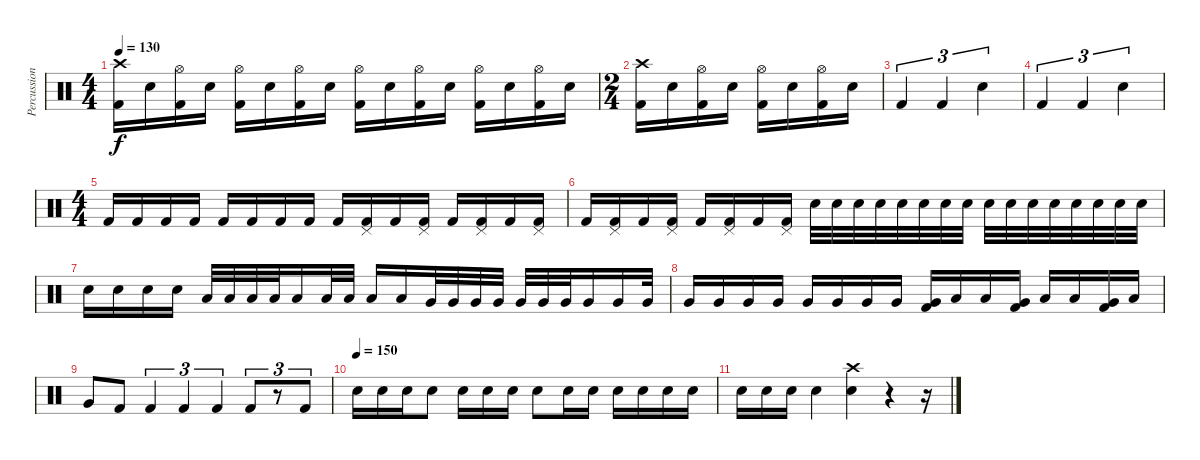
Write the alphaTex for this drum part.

\track ("Percussion" "Percussion") {instrument percussion}
\staff {score}
\articulation defaults
\ts (4 4)
\tempo 130
\clef neutral
\ks c
("Crash high (hit)" "Kick (hit) 2").16{dy f} "Snare (hit) 2".16 ("Hi-Hat (open)" "Kick (hit) 2").16 "Snare (hit) 2".16 ("Hi-Hat (open)" "Kick (hit) 2").16 "Snare (hit) 2".16 ("Hi-Hat (open)" "Kick (hit) 2").16 "Snare (hit) 2".16 ("Hi-Hat (open)" "Kick (hit) 2").16 "Snare (hit) 2".16 ("Hi-Hat (open)" "Kick (hit) 2").16 "Snare (hit) 2".16 ("Hi-Hat (open)" "Kick (hit) 2").16 "Snare (hit) 2".16 ("Hi-Hat (open)" "Kick (hit) 2").16 "Snare (hit) 2".16 |
\ts (2 4)
("Crash high (hit)" "Kick (hit) 2").16 "Snare (hit) 2".16 ("Hi-Hat (open)" "Kick (hit) 2").16 "Snare (hit) 2".16 ("Hi-Hat (open)" "Kick (hit) 2").16 "Snare (hit) 2".16 ("Hi-Hat (open)" "Kick (hit) 2").16 "Snare (hit) 2".16 |
"Kick (hit) 2".4{tu (3 2)} "Kick (hit) 2".4{tu (3 2)} "Snare (hit) 2".4{tu (3 2)} |
"Kick (hit) 2".4{tu (3 2)} "Kick (hit) 2".4{tu (3 2)} "Snare (hit) 2".4{tu (3 2)} |
\ts (4 4)
"Kick (hit) 2".16 "Kick (hit) 2".16 "Kick (hit) 2".16 "Kick (hit) 2".16 "Kick (hit) 2".16 "Kick (hit) 2".16 "Kick (hit) 2".16 "Kick (hit) 2".16 "Kick (hit) 2".16 ("Pedal Hi-Hat (hit)" "Kick (hit) 2").16 "Kick (hit) 2".16 ("Pedal Hi-Hat (hit)" "Kick (hit) 2").16 "Kick (hit) 2".16 ("Pedal Hi-Hat (hit)" "Kick (hit) 2").16 "Kick (hit) 2".16 ("Pedal Hi-Hat (hit)" "Kick (hit) 2").16 |
"Kick (hit) 2".16 ("Pedal Hi-Hat (hit)" "Kick (hit) 2").16 "Kick (hit) 2".16 ("Pedal Hi-Hat (hit)" "Kick (hit) 2").16 "Kick (hit) 2".16 ("Pedal Hi-Hat (hit)" "Kick (hit) 2").16 "Kick (hit) 2".16 ("Pedal Hi-Hat (hit)" "Kick (hit) 2").16 "Snare (hit) 2".32 "Snare (hit) 2".32 "Snare (hit) 2".32 "Snare (hit) 2".32 "Snare (hit) 2".32 "Snare (hit) 2".32 "Snare (hit) 2".32 "Snare (hit) 2".32 "Snare (hit) 2".32 "Snare (hit) 2".32 "Snare (hit) 2".32 "Snare (hit) 2".32 "Snare (hit) 2".32 "Snare (hit) 2".32 "Snare (hit) 2".32 "Snare (hit) 2".32 |
"Snare (hit) 2".16 "Snare (hit) 2".16 "Snare (hit) 2".16 "Snare (hit) 2".16 "Low Tom (hit)".32 "Low Tom (hit)".32 "Low Tom (hit)".32 "Low Tom (hit)".32 "Low Tom (hit)".16 "Low Tom (hit)".32 "Low Tom (hit)".32 "Low Tom (hit)".16 "Low Tom (hit)".16 "Very Low Tom (hit)".32 "Very Low Tom (hit)".32 "Very Low Tom (hit)".32 "Very Low Tom (hit)".32 "Very Low Tom (hit)".32 "Very Low Tom (hit)".32 "Very Low Tom (hit)".32 "Very Low Tom (hit)".16 "Very Low Tom (hit)".16 "Very Low Tom (hit)".32 |
"Very Low Tom (hit)".16 "Very Low Tom (hit)".16 "Very Low Tom (hit)".16 "Very Low Tom (hit)".16 "Very Low Tom (hit)".16 "Very Low Tom (hit)".16 "Very Low Tom (hit)".16 "Very Low Tom (hit)".16 ("Very Low Tom (hit)" "Kick (hit) 2").16 "Low Floor Tom (hit)".16 "Low Floor Tom (hit)".16 ("Very Low Tom (hit)" "Kick (hit) 2").16 "Low Floor Tom (hit)".16 "Low Floor Tom (hit)".16 ("Very Low Tom (hit)" "Kick (hit) 2").16 "Low Floor Tom (hit)".16 |
"Very Low Tom (hit)".8 "Kick (hit) 2".8 "Kick (hit) 2".4{tu (3 2)} "Kick (hit) 2".4{tu (3 2)} "Kick (hit) 2".4{tu (3 2)} "Kick (hit) 2".8{tu (3 2)} r.8{tu (3 2)} "Kick (hit) 2".8{tu (3 2)} |
\tempo (150)
"Snare (hit) 2".16 "Snare (hit) 2".16 "Snare (hit) 2".16 "Snare (hit) 2".8 "Snare (hit) 2".16 "Snare (hit) 2".16 "Snare (hit) 2".16 "Snare (hit) 2".8 "Snare (hit) 2".16 "Snare (hit) 2".16 "Snare (hit) 2".16 "Snare (hit) 2".16 "Snare (hit) 2".16 "Snare (hit) 2".16 |
"Snare (hit) 2".16 "Snare (hit) 2".16 "Snare (hit) 2".16 "Snare (hit) 2".4 ("Crash high (hit)" "Snare (hit) 2").4 r.4 r.16
